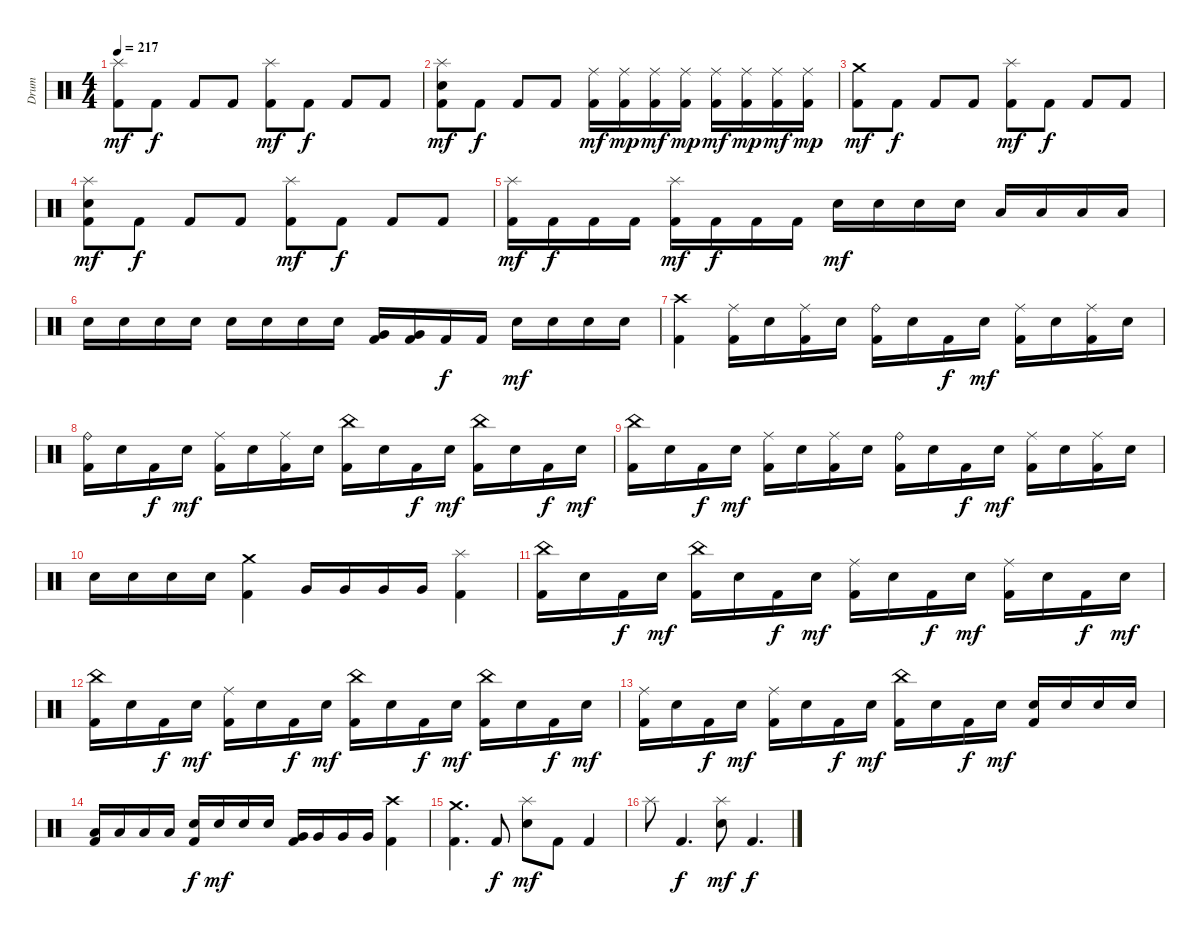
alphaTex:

\track ("Drum" "Drum") {instrument percussion}
\staff {score}
\articulation defaults
\ts (4 4)
\tempo 217
\clef neutral
\ks c
("Splash (hit)" "Kick (hit) 2").8{dy mf} "Kick (hit) 2".8{dy f} "Kick (hit) 2".8 "Kick (hit) 2".8 ("Splash (hit)" "Kick (hit) 2").8{dy mf} "Kick (hit) 2".8{dy f} "Kick (hit) 2".8 "Kick (hit) 2".8 |
("Splash (hit)" "Electric Snare (hit)" "Kick (hit) 2").8{dy mf} "Kick (hit) 2".8{dy f} "Kick (hit) 2".8 "Kick (hit) 2".8 ("Ride (middle)" "Kick (hit) 2").16{dy mf} ("Ride (middle)" "Kick (hit) 2").16{dy mp} ("Ride (middle)" "Kick (hit) 2").16{dy mf} ("Ride (middle)" "Kick (hit) 2").16{dy mp} ("Ride (middle)" "Kick (hit) 2").16{dy mf} ("Ride (middle)" "Kick (hit) 2").16{dy mp} ("Ride (middle)" "Kick (hit) 2").16{dy mf} ("Ride (middle)" "Kick (hit) 2").16{dy mp} |
("Crash medium (hit)" "Kick (hit) 2").8{dy mf} "Kick (hit) 2".8{dy f} "Kick (hit) 2".8 "Kick (hit) 2".8 ("Splash (hit)" "Kick (hit) 2").8{dy mf} "Kick (hit) 2".8{dy f} "Kick (hit) 2".8 "Kick (hit) 2".8 |
("Splash (hit)" "Electric Snare (hit)" "Kick (hit) 2").8{dy mf} "Kick (hit) 2".8{dy f} "Kick (hit) 2".8 "Kick (hit) 2".8 ("Splash (hit)" "Kick (hit) 2").8{dy mf} "Kick (hit) 2".8{dy f} "Kick (hit) 2".8 "Kick (hit) 2".8 |
("Splash (hit)" "Kick (hit) 2").16{dy mf} "Kick (hit) 2".16{dy f} "Kick (hit) 2".16 "Kick (hit) 2".16 ("Splash (hit)" "Kick (hit) 2").16{dy mf} "Kick (hit) 2".16{dy f} "Kick (hit) 2".16 "Kick (hit) 2".16 "Electric Snare (hit)".16{dy mf} "Electric Snare (hit)".16 "Electric Snare (hit)".16 "Electric Snare (hit)".16 "Low Tom (hit)".16 "Low Tom (hit)".16 "Low Tom (hit)".16 "Low Tom (hit)".16 |
"Electric Snare (hit)".16 "Electric Snare (hit)".16 "Electric Snare (hit)".16 "Electric Snare (hit)".16 "Electric Snare (hit)".16 "Electric Snare (hit)".16 "Electric Snare (hit)".16 "Electric Snare (hit)".16 ("Very Low Tom (hit)" "Kick (hit) 2").16 ("Very Low Tom (hit)" "Kick (hit) 2").16 "Kick (hit) 2".16{dy f} "Kick (hit) 2".16 "Electric Snare (hit)".16{dy mf} "Electric Snare (hit)".16 "Electric Snare (hit)".16 "Electric Snare (hit)".16 |
("Crash high (hit)" "Kick (hit) 2").4 ("Ride (middle)" "Kick (hit) 2").16 "Electric Snare (hit)".16 ("Ride (middle)" "Kick (hit) 2").16 "Electric Snare (hit)".16 ("Ride (bell)" "Kick (hit) 2").16 "Electric Snare (hit)".16 "Kick (hit) 2".16{dy f} "Electric Snare (hit)".16{dy mf} ("Ride (middle)" "Kick (hit) 2").16 "Electric Snare (hit)".16 ("Ride (middle)" "Kick (hit) 2").16 "Electric Snare (hit)".16 |
("Ride (bell)" "Kick (hit) 2").16 "Electric Snare (hit)".16 "Kick (hit) 2".16{dy f} "Electric Snare (hit)".16{dy mf} ("Ride (middle)" "Kick (hit) 2").16 "Electric Snare (hit)".16 ("Ride (middle)" "Kick (hit) 2").16 "Electric Snare (hit)".16 ("China (hit)" "Kick (hit) 2").16 "Electric Snare (hit)".16 "Kick (hit) 2".16{dy f} "Electric Snare (hit)".16{dy mf} ("China (hit)" "Kick (hit) 2").16 "Electric Snare (hit)".16 "Kick (hit) 2".16{dy f} "Electric Snare (hit)".16{dy mf} |
("China (hit)" "Kick (hit) 2").16 "Electric Snare (hit)".16 "Kick (hit) 2".16{dy f} "Electric Snare (hit)".16{dy mf} ("Ride (middle)" "Kick (hit) 2").16 "Electric Snare (hit)".16 ("Ride (middle)" "Kick (hit) 2").16 "Electric Snare (hit)".16 ("Ride (bell)" "Kick (hit) 2").16 "Electric Snare (hit)".16 "Kick (hit) 2".16{dy f} "Electric Snare (hit)".16{dy mf} ("Ride (middle)" "Kick (hit) 2").16 "Electric Snare (hit)".16 ("Ride (middle)" "Kick (hit) 2").16 "Electric Snare (hit)".16 |
"Electric Snare (hit)".16 "Electric Snare (hit)".16 "Electric Snare (hit)".16 "Electric Snare (hit)".16 ("Crash medium (hit)" "Kick (hit) 2").4 "Very Low Tom (hit)".16 "Very Low Tom (hit)".16 "Very Low Tom (hit)".16 "Very Low Tom (hit)".16 ("Splash (hit)" "Kick (hit) 2").4 |
("China (hit)" "Kick (hit) 2").16 "Electric Snare (hit)".16 "Kick (hit) 2".16{dy f} "Electric Snare (hit)".16{dy mf} ("China (hit)" "Kick (hit) 2").16 "Electric Snare (hit)".16 "Kick (hit) 2".16{dy f} "Electric Snare (hit)".16{dy mf} ("Ride (middle)" "Kick (hit) 2").16 "Electric Snare (hit)".16 "Kick (hit) 2".16{dy f} "Electric Snare (hit)".16{dy mf} ("Ride (middle)" "Kick (hit) 2").16 "Electric Snare (hit)".16 "Kick (hit) 2".16{dy f} "Electric Snare (hit)".16{dy mf} |
("China (hit)" "Kick (hit) 2").16 "Electric Snare (hit)".16 "Kick (hit) 2".16{dy f} "Electric Snare (hit)".16{dy mf} ("Ride (middle)" "Kick (hit) 2").16 "Electric Snare (hit)".16 "Kick (hit) 2".16{dy f} "Electric Snare (hit)".16{dy mf} ("China (hit)" "Kick (hit) 2").16 "Electric Snare (hit)".16 "Kick (hit) 2".16{dy f} "Electric Snare (hit)".16{dy mf} ("China (hit)" "Kick (hit) 2").16 "Electric Snare (hit)".16 "Kick (hit) 2".16{dy f} "Electric Snare (hit)".16{dy mf} |
("Ride (middle)" "Kick (hit) 2").16 "Electric Snare (hit)".16 "Kick (hit) 2".16{dy f} "Electric Snare (hit)".16{dy mf} ("Ride (middle)" "Kick (hit) 2").16 "Electric Snare (hit)".16 "Kick (hit) 2".16{dy f} "Electric Snare (hit)".16{dy mf} ("China (hit)" "Kick (hit) 2").16 "Electric Snare (hit)".16 "Kick (hit) 2".16{dy f} "Electric Snare (hit)".16{dy mf} ("Electric Snare (hit)" "Kick (hit) 2").16 "Electric Snare (hit)".16 "Electric Snare (hit)".16 "Electric Snare (hit)".16 |
("Low Tom (hit)" "Kick (hit) 2").16 "Low Tom (hit)".16 "Low Tom (hit)".16 "Low Tom (hit)".16 ("Electric Snare (hit)" "Kick (hit) 2").16{dy f} "Electric Snare (hit)".16{dy mf} "Electric Snare (hit)".16 "Electric Snare (hit)".16 ("Very Low Tom (hit)" "Kick (hit) 2").16 "Very Low Tom (hit)".16 "Very Low Tom (hit)".16 "Very Low Tom (hit)".16 ("Crash high (hit)" "Kick (hit) 2").4 |
("Crash medium (hit)" "Kick (hit) 2").4{d} "Kick (hit) 2".8{dy f} ("Splash (hit)" "Electric Snare (hit)").8{dy mf} "Kick (hit) 2".8 "Kick (hit) 2".4 |
"Splash (hit)".8 "Kick (hit) 2".4{d dy f} ("Splash (hit)" "Electric Snare (hit)").8{dy mf} "Kick (hit) 2".4{d dy f}
